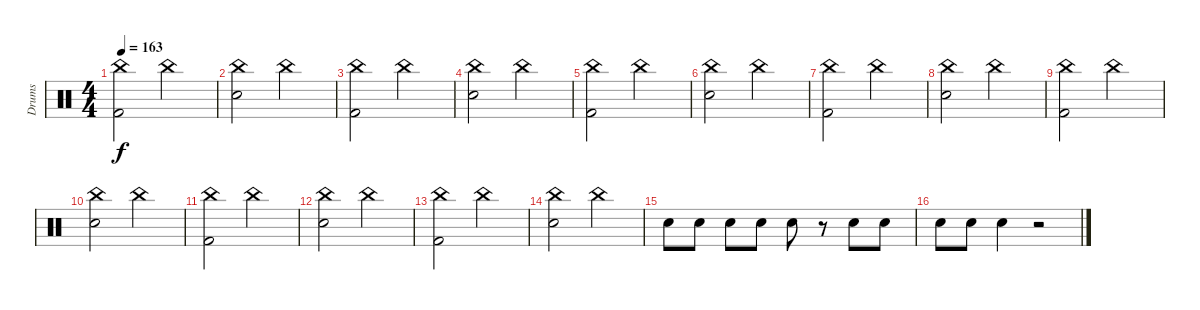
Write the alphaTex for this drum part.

\track ("Drums" "Drums") {instrument percussion}
\staff {score}
\articulation defaults
\ts (4 4)
\tempo 163
\clef neutral
\ks c
("China (hit)" "Kick (hit) 2").2{dy f} "China (hit)".2 |
("China (hit)" "Electric Snare (hit)").2 "China (hit)".2 |
("China (hit)" "Kick (hit) 2").2 "China (hit)".2 |
("China (hit)" "Electric Snare (hit)").2 "China (hit)".2 |
("China (hit)" "Kick (hit) 2").2 "China (hit)".2 |
("China (hit)" "Electric Snare (hit)").2 "China (hit)".2 |
("China (hit)" "Kick (hit) 2").2 "China (hit)".2 |
("China (hit)" "Electric Snare (hit)").2 "China (hit)".2 |
("China (hit)" "Kick (hit) 2").2 "China (hit)".2 |
("China (hit)" "Electric Snare (hit)").2 "China (hit)".2 |
("China (hit)" "Kick (hit) 2").2 "China (hit)".2 |
("China (hit)" "Electric Snare (hit)").2 "China (hit)".2 |
("China (hit)" "Kick (hit) 2").2 "China (hit)".2 |
("China (hit)" "Electric Snare (hit)").2 "China (hit)".2 |
"Electric Snare (hit)".8 "Electric Snare (hit)".8 "Electric Snare (hit)".8 "Electric Snare (hit)".8 "Electric Snare (hit)".8 r.8 "Electric Snare (hit)".8 "Electric Snare (hit)".8 |
"Electric Snare (hit)".8 "Electric Snare (hit)".8 "Electric Snare (hit)".4 r.2
